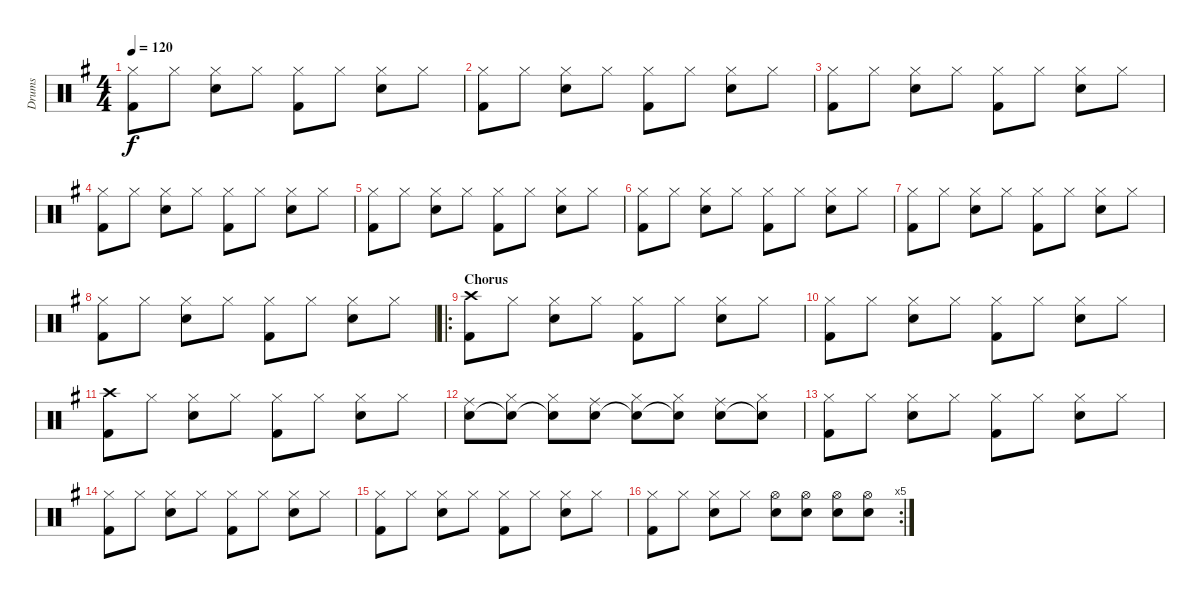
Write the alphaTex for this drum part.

\track ("Drums" "Drums") {instrument percussion}
\staff {score}
\articulation defaults
\ts (4 4)
\tempo 120
\clef neutral
\ks g
("Hi-Hat (closed)" "Kick (hit) 2").8{dy f} "Hi-Hat (closed)".8 ("Hi-Hat (closed)" "Electric Snare (hit)").8 "Hi-Hat (closed)".8 ("Hi-Hat (closed)" "Kick (hit) 2").8 "Hi-Hat (closed)".8 ("Hi-Hat (closed)" "Electric Snare (hit)").8 "Hi-Hat (closed)".8 |
("Hi-Hat (closed)" "Kick (hit) 2").8 "Hi-Hat (closed)".8 ("Hi-Hat (closed)" "Electric Snare (hit)").8 "Hi-Hat (closed)".8 ("Hi-Hat (closed)" "Kick (hit) 2").8 "Hi-Hat (closed)".8 ("Hi-Hat (closed)" "Electric Snare (hit)").8 "Hi-Hat (closed)".8 |
("Hi-Hat (closed)" "Kick (hit) 2").8 "Hi-Hat (closed)".8 ("Hi-Hat (closed)" "Electric Snare (hit)").8 "Hi-Hat (closed)".8 ("Hi-Hat (closed)" "Kick (hit) 2").8 "Hi-Hat (closed)".8 ("Hi-Hat (closed)" "Electric Snare (hit)").8 "Hi-Hat (closed)".8 |
("Hi-Hat (closed)" "Kick (hit) 2").8 "Hi-Hat (closed)".8 ("Hi-Hat (closed)" "Electric Snare (hit)").8 "Hi-Hat (closed)".8 ("Hi-Hat (closed)" "Kick (hit) 2").8 "Hi-Hat (closed)".8 ("Hi-Hat (closed)" "Electric Snare (hit)").8 "Hi-Hat (closed)".8 |
("Hi-Hat (closed)" "Kick (hit) 2").8 "Hi-Hat (closed)".8 ("Hi-Hat (closed)" "Electric Snare (hit)").8 "Hi-Hat (closed)".8 ("Hi-Hat (closed)" "Kick (hit) 2").8 "Hi-Hat (closed)".8 ("Hi-Hat (closed)" "Electric Snare (hit)").8 "Hi-Hat (closed)".8 |
("Hi-Hat (closed)" "Kick (hit) 2").8 "Hi-Hat (closed)".8 ("Hi-Hat (closed)" "Electric Snare (hit)").8 "Hi-Hat (closed)".8 ("Hi-Hat (closed)" "Kick (hit) 2").8 "Hi-Hat (closed)".8 ("Hi-Hat (closed)" "Electric Snare (hit)").8 "Hi-Hat (closed)".8 |
("Hi-Hat (closed)" "Kick (hit) 2").8 "Hi-Hat (closed)".8 ("Hi-Hat (closed)" "Electric Snare (hit)").8 "Hi-Hat (closed)".8 ("Hi-Hat (closed)" "Kick (hit) 2").8 "Hi-Hat (closed)".8 ("Hi-Hat (closed)" "Electric Snare (hit)").8 "Hi-Hat (closed)".8 |
("Hi-Hat (closed)" "Kick (hit) 2").8 "Hi-Hat (closed)".8 ("Hi-Hat (closed)" "Electric Snare (hit)").8 "Hi-Hat (closed)".8 ("Hi-Hat (closed)" "Kick (hit) 2").8 "Hi-Hat (closed)".8 ("Hi-Hat (closed)" "Electric Snare (hit)").8 "Hi-Hat (closed)".8 |
\ro
\section ("" "Chorus")
("Crash high (hit)" "Kick (hit) 2").8 "Hi-Hat (closed)".8 ("Hi-Hat (closed)" "Snare (hit) 2").8 "Hi-Hat (closed)".8 ("Hi-Hat (closed)" "Kick (hit) 2").8 "Hi-Hat (closed)".8 ("Hi-Hat (closed)" "Snare (hit) 2").8 "Hi-Hat (closed)".8 |
("Hi-Hat (closed)" "Kick (hit) 2").8 "Hi-Hat (closed)".8 ("Hi-Hat (closed)" "Snare (hit) 2").8 "Hi-Hat (closed)".8 ("Hi-Hat (closed)" "Kick (hit) 2").8 "Hi-Hat (closed)".8 ("Hi-Hat (closed)" "Snare (hit) 2").8 "Hi-Hat (closed)".8 |
("Crash high (hit)" "Kick (hit) 2").8 "Hi-Hat (closed)".8 ("Hi-Hat (closed)" "Snare (hit) 2").8 "Hi-Hat (closed)".8 ("Hi-Hat (closed)" "Kick (hit) 2").8 "Hi-Hat (closed)".8 ("Hi-Hat (closed)" "Snare (hit) 2").8 "Hi-Hat (closed)".8 |
("Ride (middle)" "Snare (hit) 2").8 ("Hi-Hat (closed)" "Snare (hit) 2"{t}).8 ("Hi-Hat (closed)" "Snare (hit) 2"{t}).8 ("Ride (middle)" "Snare (hit) 2").8 ("Hi-Hat (closed)" "Snare (hit) 2"{t}).8 ("Hi-Hat (closed)" "Snare (hit) 2"{t}).8 ("Ride (middle)" "Snare (hit) 2").8 ("Hi-Hat (closed)" "Snare (hit) 2"{t}).8 |
("Hi-Hat (closed)" "Kick (hit) 2").8 "Hi-Hat (closed)".8 ("Hi-Hat (closed)" "Snare (hit) 2").8 "Hi-Hat (closed)".8 ("Hi-Hat (closed)" "Kick (hit) 2").8 "Hi-Hat (closed)".8 ("Hi-Hat (closed)" "Snare (hit) 2").8 "Hi-Hat (closed)".8 |
("Hi-Hat (closed)" "Kick (hit) 2").8 "Hi-Hat (closed)".8 ("Hi-Hat (closed)" "Snare (hit) 2").8 "Hi-Hat (closed)".8 ("Hi-Hat (closed)" "Kick (hit) 2").8 "Hi-Hat (closed)".8 ("Hi-Hat (closed)" "Snare (hit) 2").8 "Hi-Hat (closed)".8 |
("Hi-Hat (closed)" "Kick (hit) 2").8 "Hi-Hat (closed)".8 ("Hi-Hat (closed)" "Snare (hit) 2").8 "Hi-Hat (closed)".8 ("Hi-Hat (closed)" "Kick (hit) 2").8 "Hi-Hat (closed)".8 ("Hi-Hat (closed)" "Snare (hit) 2").8 "Hi-Hat (closed)".8 |
\rc 5
("Hi-Hat (closed)" "Kick (hit) 2").8 "Hi-Hat (closed)".8 ("Hi-Hat (closed)" "Snare (hit) 2").8 "Hi-Hat (closed)".8 ("Hi-Hat (open)" "Snare (hit) 2").8 ("Hi-Hat (open)" "Snare (hit) 2").8 ("Hi-Hat (open)" "Snare (hit) 2").8 ("Hi-Hat (open)" "Snare (hit) 2").8
